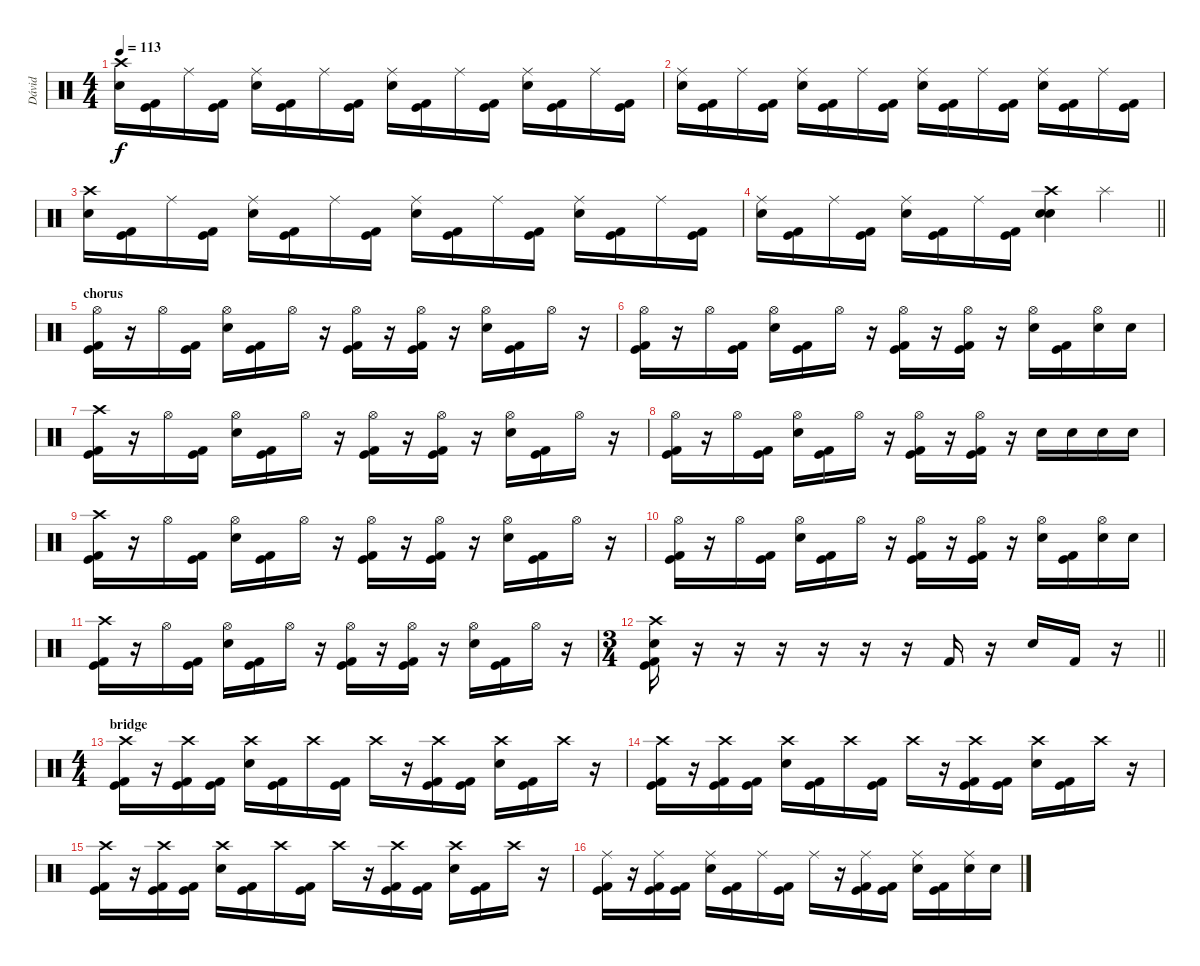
\track ("Dávid" "Dávid") {instrument percussion}
\staff {score}
\articulation defaults
\ts (4 4)
\tempo 113
\clef neutral
\ks c
("Crash high (hit)" "Snare (hit) 2").16{dy f} ("Kick (hit)" "Kick (hit) 2").16 "Ride (middle)".16 ("Kick (hit)" "Kick (hit) 2").16 ("Ride (middle)" "Snare (hit) 2").16 ("Kick (hit)" "Kick (hit) 2").16 "Ride (middle)".16 ("Kick (hit)" "Kick (hit) 2").16 ("Ride (middle)" "Snare (hit) 2").16 ("Kick (hit)" "Kick (hit) 2").16 "Ride (middle)".16 ("Kick (hit)" "Kick (hit) 2").16 ("Ride (middle)" "Snare (hit) 2").16 ("Kick (hit)" "Kick (hit) 2").16 "Ride (middle)".16 ("Kick (hit)" "Kick (hit) 2").16 |
("Ride (middle)" "Snare (hit) 2").16 ("Kick (hit)" "Kick (hit) 2").16 "Ride (middle)".16 ("Kick (hit)" "Kick (hit) 2").16 ("Ride (middle)" "Snare (hit) 2").16 ("Kick (hit)" "Kick (hit) 2").16 "Ride (middle)".16 ("Kick (hit)" "Kick (hit) 2").16 ("Ride (middle)" "Snare (hit) 2").16 ("Kick (hit)" "Kick (hit) 2").16 "Ride (middle)".16 ("Kick (hit)" "Kick (hit) 2").16 ("Ride (middle)" "Snare (hit) 2").16 ("Kick (hit)" "Kick (hit) 2").16 "Ride (middle)".16 ("Kick (hit)" "Kick (hit) 2").16 |
("Crash high (hit)" "Snare (hit) 2").16 ("Kick (hit)" "Kick (hit) 2").16 "Ride (middle)".16 ("Kick (hit)" "Kick (hit) 2").16 ("Ride (middle)" "Snare (hit) 2").16 ("Kick (hit)" "Kick (hit) 2").16 "Ride (middle)".16 ("Kick (hit)" "Kick (hit) 2").16 ("Ride (middle)" "Snare (hit) 2").16 ("Kick (hit)" "Kick (hit) 2").16 "Ride (middle)".16 ("Kick (hit)" "Kick (hit) 2").16 ("Ride (middle)" "Snare (hit) 2").16 ("Kick (hit)" "Kick (hit) 2").16 "Ride (middle)".16 ("Kick (hit)" "Kick (hit) 2").16 |
\barLineRight lightlight
("Ride (middle)" "Snare (hit) 2").16 ("Kick (hit)" "Kick (hit) 2").16 "Ride (middle)".16 ("Kick (hit)" "Kick (hit) 2").16 ("Ride (middle)" "Snare (hit) 2").16 ("Kick (hit)" "Kick (hit) 2").16 "Ride (middle)".16 ("Kick (hit)" "Kick (hit) 2").16 ("Crash high (hit)" "Snare (hit) 2" "Snare (hit) 2").4 "Splash (hit)".4 |
\section ("" "chorus")
("Hi-Hat (open)" "Kick (hit) 2" "Kick (hit)").16 r.16 "Hi-Hat (open)".16 ("Kick (hit) 2" "Kick (hit)").16 ("Hi-Hat (open)" "Snare (hit) 2").16 ("Kick (hit) 2" "Kick (hit)").16 "Hi-Hat (open)".16 r.16 ("Hi-Hat (open)" "Kick (hit) 2" "Kick (hit)").16 r.16 ("Hi-Hat (open)" "Kick (hit) 2" "Kick (hit)").16 r.16 ("Hi-Hat (open)" "Snare (hit) 2").16 ("Kick (hit) 2" "Kick (hit)").16 "Hi-Hat (open)".16 r.16 |
("Hi-Hat (open)" "Kick (hit) 2" "Kick (hit)").16 r.16 "Hi-Hat (open)".16 ("Kick (hit) 2" "Kick (hit)").16 ("Hi-Hat (open)" "Snare (hit) 2").16 ("Kick (hit) 2" "Kick (hit)").16 "Hi-Hat (open)".16 r.16 ("Hi-Hat (open)" "Kick (hit) 2" "Kick (hit)").16 r.16 ("Hi-Hat (open)" "Kick (hit) 2" "Kick (hit)").16 r.16 ("Hi-Hat (open)" "Snare (hit) 2").16 ("Kick (hit) 2" "Kick (hit)").16 ("Hi-Hat (open)" "Snare (hit) 2").16 "Snare (hit) 2".16 |
("Crash high (hit)" "Kick (hit) 2" "Kick (hit)").16 r.16 "Hi-Hat (open)".16 ("Kick (hit) 2" "Kick (hit)").16 ("Hi-Hat (open)" "Snare (hit) 2").16 ("Kick (hit) 2" "Kick (hit)").16 "Hi-Hat (open)".16 r.16 ("Hi-Hat (open)" "Kick (hit) 2" "Kick (hit)").16 r.16 ("Hi-Hat (open)" "Kick (hit) 2" "Kick (hit)").16 r.16 ("Hi-Hat (open)" "Snare (hit) 2").16 ("Kick (hit) 2" "Kick (hit)").16 "Hi-Hat (open)".16 r.16 |
("Hi-Hat (open)" "Kick (hit) 2" "Kick (hit)").16 r.16 "Hi-Hat (open)".16 ("Kick (hit) 2" "Kick (hit)").16 ("Hi-Hat (open)" "Snare (hit) 2").16 ("Kick (hit) 2" "Kick (hit)").16 "Hi-Hat (open)".16 r.16 ("Hi-Hat (open)" "Kick (hit) 2" "Kick (hit)").16 r.16 ("Hi-Hat (open)" "Kick (hit) 2" "Kick (hit)").16 r.16 "Snare (hit) 2".16 "Snare (hit) 2".16 "Snare (hit) 2".16 "Snare (hit) 2".16 |
("Crash high (hit)" "Kick (hit) 2" "Kick (hit)").16 r.16 "Hi-Hat (open)".16 ("Kick (hit) 2" "Kick (hit)").16 ("Hi-Hat (open)" "Snare (hit) 2").16 ("Kick (hit) 2" "Kick (hit)").16 "Hi-Hat (open)".16 r.16 ("Hi-Hat (open)" "Kick (hit) 2" "Kick (hit)").16 r.16 ("Hi-Hat (open)" "Kick (hit) 2" "Kick (hit)").16 r.16 ("Hi-Hat (open)" "Snare (hit) 2").16 ("Kick (hit) 2" "Kick (hit)").16 "Hi-Hat (open)".16 r.16 |
("Hi-Hat (open)" "Kick (hit) 2" "Kick (hit)").16 r.16 "Hi-Hat (open)".16 ("Kick (hit) 2" "Kick (hit)").16 ("Hi-Hat (open)" "Snare (hit) 2").16 ("Kick (hit) 2" "Kick (hit)").16 "Hi-Hat (open)".16 r.16 ("Hi-Hat (open)" "Kick (hit) 2" "Kick (hit)").16 r.16 ("Hi-Hat (open)" "Kick (hit) 2" "Kick (hit)").16 r.16 ("Hi-Hat (open)" "Snare (hit) 2").16 ("Kick (hit) 2" "Kick (hit)").16 ("Hi-Hat (open)" "Snare (hit) 2").16 "Snare (hit) 2".16 |
("Crash high (hit)" "Kick (hit) 2" "Kick (hit)").16 r.16 "Hi-Hat (open)".16 ("Kick (hit) 2" "Kick (hit)").16 ("Hi-Hat (open)" "Snare (hit) 2").16 ("Kick (hit) 2" "Kick (hit)").16 "Hi-Hat (open)".16 r.16 ("Hi-Hat (open)" "Kick (hit) 2" "Kick (hit)").16 r.16 ("Hi-Hat (open)" "Kick (hit) 2" "Kick (hit)").16 r.16 ("Hi-Hat (open)" "Snare (hit) 2").16 ("Kick (hit) 2" "Kick (hit)").16 "Hi-Hat (open)".16 r.16 |
\ts (3 4)
\barLineRight lightlight
("Crash high (hit)" "Snare (hit) 2" "Kick (hit) 2" "Kick (hit)").16 r.16 r.16 r.16 r.16 r.16 r.16 "Kick (hit) 2".16 r.16 "Snare (hit) 2".16 "Kick (hit) 2".16 r.16 |
\ts (4 4)
\section ("" "bridge")
("Crash high (hit)" "Kick (hit)" "Kick (hit) 2").16 r.16 ("Crash high (hit)" "Kick (hit)" "Kick (hit) 2").16 ("Kick (hit)" "Kick (hit) 2").16 ("Crash high (hit)" "Snare (hit) 2").16 ("Kick (hit)" "Kick (hit) 2").16 "Crash high (hit)".16 ("Kick (hit)" "Kick (hit) 2").16 "Crash high (hit)".16 r.16 ("Crash high (hit)" "Kick (hit)" "Kick (hit) 2").16 ("Kick (hit) 2" "Kick (hit)").16 ("Crash high (hit)" "Snare (hit) 2").16 ("Kick (hit)" "Kick (hit) 2").16 "Crash high (hit)".16 r.16 |
("Crash high (hit)" "Kick (hit)" "Kick (hit) 2").16 r.16 ("Crash high (hit)" "Kick (hit)" "Kick (hit) 2").16 ("Kick (hit)" "Kick (hit) 2").16 ("Crash high (hit)" "Snare (hit) 2").16 ("Kick (hit)" "Kick (hit) 2").16 "Crash high (hit)".16 ("Kick (hit)" "Kick (hit) 2").16 "Crash high (hit)".16 r.16 ("Crash high (hit)" "Kick (hit)" "Kick (hit) 2").16 ("Kick (hit) 2" "Kick (hit)").16 ("Crash high (hit)" "Snare (hit) 2").16 ("Kick (hit)" "Kick (hit) 2").16 "Crash high (hit)".16 r.16 |
("Crash high (hit)" "Kick (hit)" "Kick (hit) 2").16 r.16 ("Crash high (hit)" "Kick (hit)" "Kick (hit) 2").16 ("Kick (hit)" "Kick (hit) 2").16 ("Crash high (hit)" "Snare (hit) 2").16 ("Kick (hit)" "Kick (hit) 2").16 "Crash high (hit)".16 ("Kick (hit)" "Kick (hit) 2").16 "Crash high (hit)".16 r.16 ("Crash high (hit)" "Kick (hit)" "Kick (hit) 2").16 ("Kick (hit) 2" "Kick (hit)").16 ("Crash high (hit)" "Snare (hit) 2").16 ("Kick (hit)" "Kick (hit) 2").16 "Crash high (hit)".16 r.16 |
("Ride (middle)" "Kick (hit)" "Kick (hit) 2").16 r.16 ("Ride (middle)" "Kick (hit)" "Kick (hit) 2").16 ("Kick (hit)" "Kick (hit) 2").16 ("Ride (middle)" "Snare (hit) 2").16 ("Kick (hit)" "Kick (hit) 2").16 "Ride (middle)".16 ("Kick (hit)" "Kick (hit) 2").16 "Ride (middle)".16 r.16 ("Ride (middle)" "Kick (hit)" "Kick (hit) 2").16 ("Kick (hit) 2" "Kick (hit)").16 ("Ride (middle)" "Snare (hit) 2").16 ("Kick (hit)" "Kick (hit) 2").16 ("Ride (middle)" "Snare (hit) 2").16 "Snare (hit) 2".16
